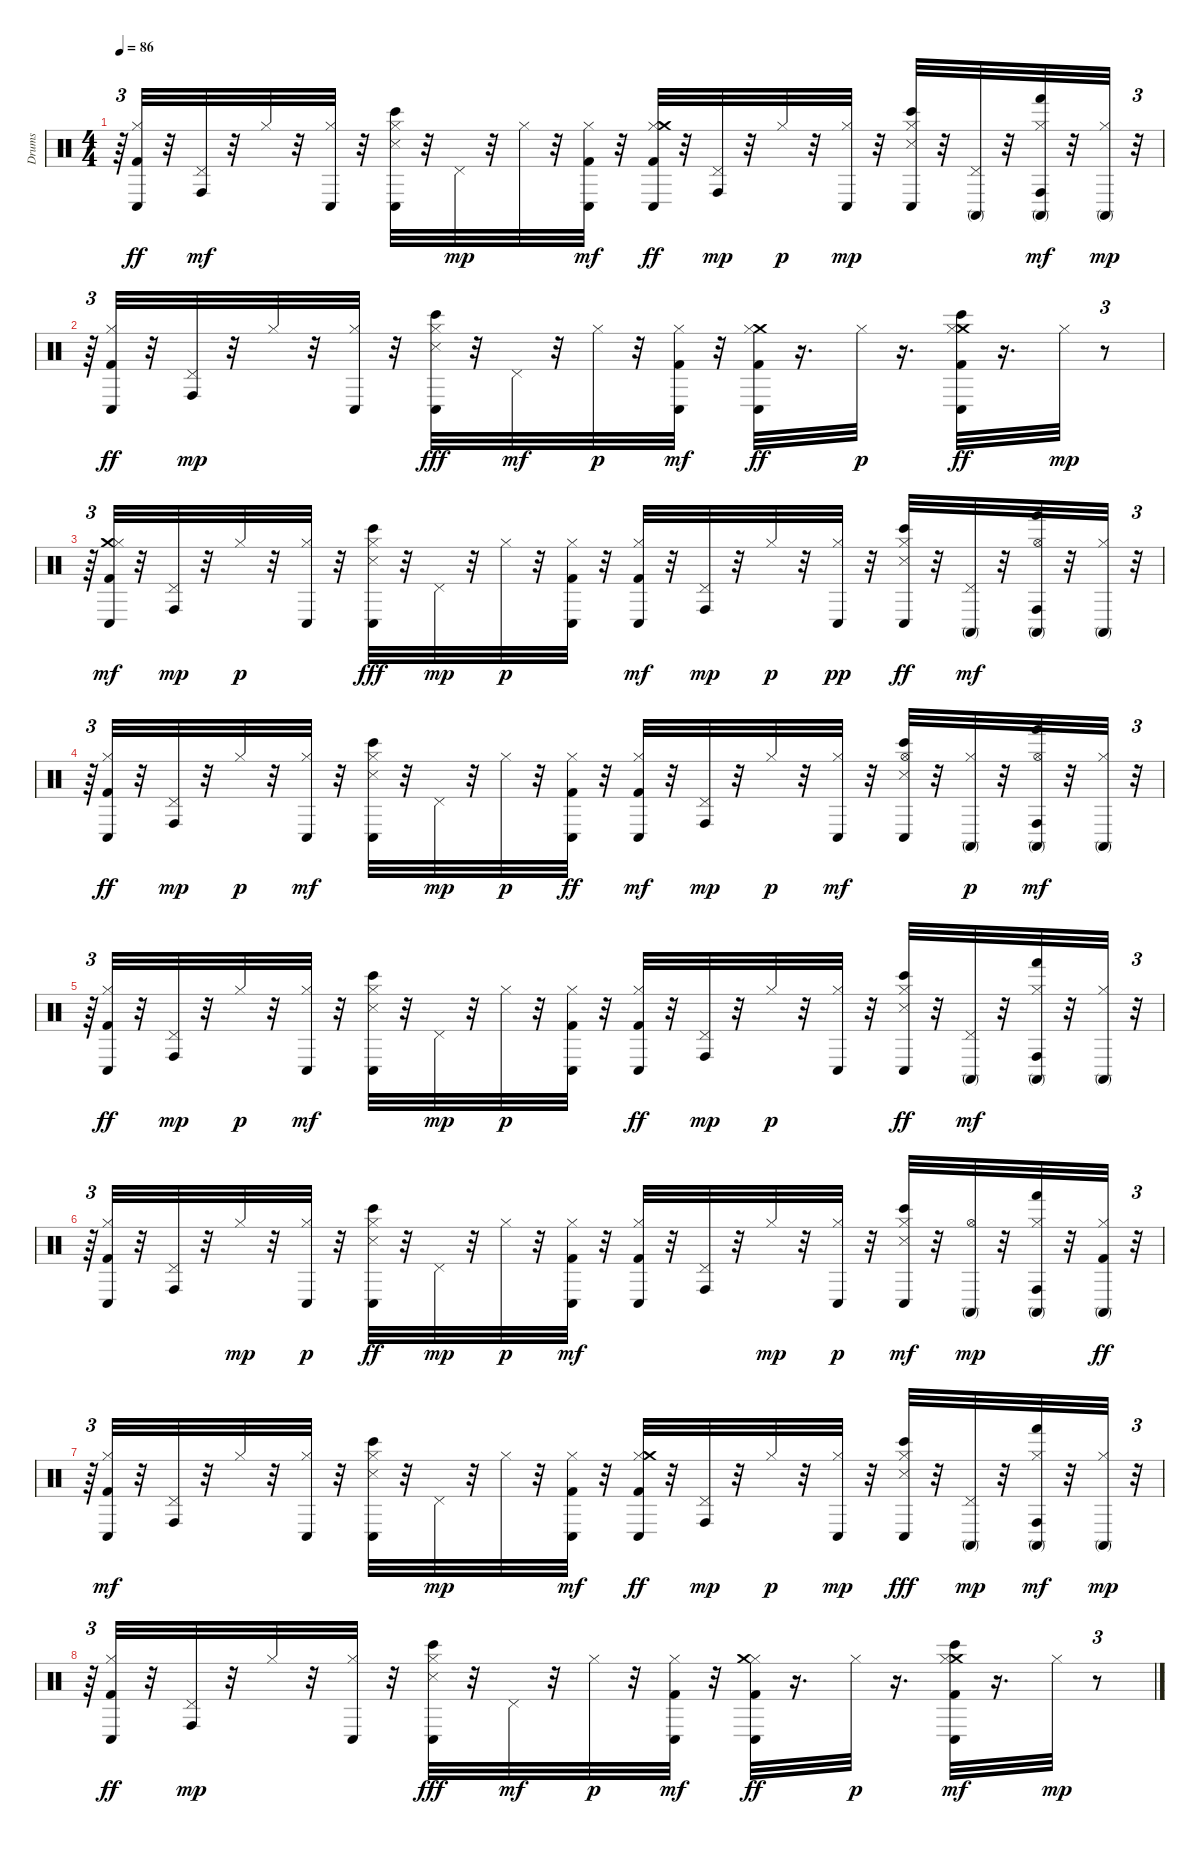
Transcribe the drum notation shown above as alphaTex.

\track ("Drums" "Drums") {instrument percussion}
\staff {score}
\articulation defaults
\ts (4 4)
\tempo 86
\clef neutral
\ks c
r.64{tu (3 2) dy ff} ("Hi-Hat (closed)" "Conga low (hit)" "Kick (hit) 2").32 r.32 ("Pedal Hi-Hat (hit)" "Conga high (hit)").32{dy mf} r.32 "Hi-Hat (closed)".32 r.32 ("Hi-Hat (closed)" "Conga low (hit)").32 r.32 ("Hi-Hat (closed)" "Bongo High (hit)" "Conga low (hit)" "Snare (side stick) 3").32 r.32 "Pedal Hi-Hat (hit)".32{dy mp} r.32 "Hi-Hat (closed)".32 r.32 ("Hi-Hat (closed)" "Kick (hit) 2" "Conga low (hit)").32{dy mf} r.32 ("Hi-Hat (closed)" "Conga low (hit)" "Crash medium (hit)" "Kick (hit) 2").32{dy ff} r.32 ("Pedal Hi-Hat (hit)" "Conga high (hit)").32{dy mp} r.32 "Hi-Hat (closed)".32{dy p} r.32 ("Conga low (hit)" "Hi-Hat (closed)").32{dy mp} r.32 ("Conga low (hit)" "Snare (side stick) 3" "Bongo High (hit)" "Hi-Hat (closed)").32 r.32 ("Conga high (mute)" "Pedal Hi-Hat (hit)").32 r.32 ("Conga high (hit)" "Hi-Hat (closed)" "Conga high (mute)" "Hand (hit)").32{dy mf} r.32 ("Conga high (mute)" "Hi-Hat (closed)").32{dy mp} r.32{tu (3 2)} |
r.64{tu (3 2)} ("Conga low (hit)" "Kick (hit) 2" "Hi-Hat (closed)").32{dy ff} r.32 ("Pedal Hi-Hat (hit)" "Conga high (hit)").32{dy mp} r.32 "Hi-Hat (closed)".32 r.32 ("Conga low (hit)" "Hi-Hat (closed)").32 r.32 ("Bongo High (hit)" "Conga low (hit)" "Snare (side stick) 3" "Hi-Hat (closed)").32{dy fff} r.32 "Pedal Hi-Hat (hit)".32{dy mf} r.32 "Hi-Hat (closed)".32{dy p} r.32 ("Hi-Hat (closed)" "Conga low (hit)" "Kick (hit) 2").32{dy mf} r.32 ("Conga low (hit)" "Crash medium (hit)" "Hi-Hat (closed)" "Kick (hit) 2").32{dy ff} r.16{d} "Hi-Hat (closed)".32{dy p} r.16{d} ("Bongo High (hit)" "Conga low (hit)" "Crash medium (hit)" "Hi-Hat (closed)" "Kick (hit) 2").32{dy ff} r.16{d} "Hi-Hat (closed)".32{dy mp} r.8{tu (3 2)} |
r.64{tu (3 2)} ("Kick (hit) 2" "Conga low (hit)" "Crash medium (hit)" "Hi-Hat (closed)").32{dy mf} r.32 ("Pedal Hi-Hat (hit)" "Conga high (hit)").32{dy mp} r.32 "Hi-Hat (closed)".32{dy p} r.32 ("Conga low (hit)" "Hi-Hat (closed)").32 r.32 ("Conga low (hit)" "Bongo High (hit)" "Snare (side stick) 3" "Hi-Hat (closed)").32{dy fff} r.32 "Pedal Hi-Hat (hit)".32{dy mp} r.32 "Hi-Hat (closed)".32{dy p} r.32 ("Conga low (hit)" "Hi-Hat (closed)" "Kick (hit) 2").32 r.32 ("Conga low (hit)" "Hi-Hat (closed)" "Kick (hit) 2").32{dy mf} r.32 ("Pedal Hi-Hat (hit)" "Conga high (hit)").32{dy mp} r.32 "Hi-Hat (closed)".32{dy p} r.32 ("Conga low (hit)" "Hi-Hat (closed)").32{dy pp} r.32 ("Bongo High (hit)" "Conga low (hit)" "Snare (side stick) 3" "Hi-Hat (closed)").32{dy ff} r.32 ("Conga high (mute)" "Pedal Hi-Hat (hit)").32{dy mf} r.32 ("Hi-Hat (open)" "Conga high (mute)" "Conga high (hit)" "Hand (hit)").32 r.32 ("Hi-Hat (closed)" "Conga high (mute)").32 r.32{tu (3 2)} |
r.64{tu (3 2)} ("Hi-Hat (closed)" "Kick (hit) 2" "Conga low (hit)").32{dy ff} r.32 ("Pedal Hi-Hat (hit)" "Conga high (hit)").32{dy mp} r.32 "Hi-Hat (closed)".32{dy p} r.32 ("Hi-Hat (closed)" "Conga low (hit)").32{dy mf} r.32 ("Snare (side stick) 3" "Hi-Hat (closed)" "Bongo High (hit)" "Conga low (hit)").32 r.32 "Pedal Hi-Hat (hit)".32{dy mp} r.32 "Hi-Hat (closed)".32{dy p} r.32 ("Hi-Hat (closed)" "Conga low (hit)" "Kick (hit) 2").32{dy ff} r.32 ("Conga low (hit)" "Kick (hit) 2" "Hi-Hat (closed)").32{dy mf} r.32 ("Conga high (hit)" "Pedal Hi-Hat (hit)").32{dy mp} r.32 "Hi-Hat (closed)".32{dy p} r.32 ("Hi-Hat (closed)" "Conga low (hit)").32{dy mf} r.32 ("Snare (side stick) 3" "Bongo High (hit)" "Conga low (hit)" "Hi-Hat (open)").32 r.32 ("Conga high (mute)" "Hi-Hat (closed)").32{dy p} r.32 ("Conga high (hit)" "Hi-Hat (open)" "Conga high (mute)" "Hand (hit)").32{dy mf} r.32 ("Hi-Hat (closed)" "Conga high (mute)").32 r.32{tu (3 2)} |
r.64{tu (3 2)} ("Kick (hit) 2" "Conga low (hit)" "Hi-Hat (closed)").32{dy ff} r.32 ("Pedal Hi-Hat (hit)" "Conga high (hit)").32{dy mp} r.32 "Hi-Hat (closed)".32{dy p} r.32 ("Hi-Hat (closed)" "Conga low (hit)").32{dy mf} r.32 ("Snare (side stick) 3" "Conga low (hit)" "Hi-Hat (closed)" "Bongo High (hit)").32 r.32 "Pedal Hi-Hat (hit)".32{dy mp} r.32 "Hi-Hat (closed)".32{dy p} r.32 ("Kick (hit) 2" "Conga low (hit)" "Hi-Hat (closed)").32 r.32 ("Hi-Hat (closed)" "Conga low (hit)" "Kick (hit) 2").32{dy ff} r.32 ("Pedal Hi-Hat (hit)" "Conga high (hit)").32{dy mp} r.32 "Hi-Hat (closed)".32{dy p} r.32 ("Conga low (hit)" "Hi-Hat (closed)").32 r.32 ("Conga low (hit)" "Bongo High (hit)" "Hi-Hat (closed)" "Snare (side stick) 3").32{dy ff} r.32 ("Conga high (mute)" "Pedal Hi-Hat (hit)").32{dy mf} r.32 ("Conga high (hit)" "Conga high (mute)" "Hi-Hat (closed)" "Hand (hit)").32 r.32 ("Hi-Hat (closed)" "Conga high (mute)").32 r.32{tu (3 2)} |
r.64{tu (3 2)} ("Kick (hit) 2" "Hi-Hat (closed)" "Conga low (hit)").32 r.32 ("Pedal Hi-Hat (hit)" "Conga high (hit)").32 r.32 "Hi-Hat (closed)".32{dy mp} r.32 ("Conga low (hit)" "Hi-Hat (closed)").32{dy p} r.32 ("Conga low (hit)" "Snare (side stick) 3" "Bongo High (hit)" "Hi-Hat (closed)").32{dy ff} r.32 "Pedal Hi-Hat (hit)".32{dy mp} r.32 "Hi-Hat (closed)".32{dy p} r.32 ("Kick (hit) 2" "Hi-Hat (closed)" "Conga low (hit)").32{dy mf} r.32 ("Conga low (hit)" "Hi-Hat (closed)" "Kick (hit) 2").32 r.32 ("Conga high (hit)" "Pedal Hi-Hat (hit)").32 r.32 "Hi-Hat (closed)".32{dy mp} r.32 ("Conga low (hit)" "Hi-Hat (closed)").32{dy p} r.32 ("Bongo High (hit)" "Snare (side stick) 3" "Conga low (hit)" "Hi-Hat (closed)").32{dy mf} r.32 ("Conga high (mute)" "Hi-Hat (open)").32{dy mp} r.32 ("Hi-Hat (closed)" "Conga high (mute)" "Conga high (hit)" "Hand (hit)").32 r.32 ("Hi-Hat (closed)" "Conga high (mute)" "Kick (hit) 2").32{dy ff} r.32{tu (3 2)} |
r.64{tu (3 2)} ("Hi-Hat (closed)" "Kick (hit) 2" "Conga low (hit)").32{dy mf} r.32 ("Pedal Hi-Hat (hit)" "Conga high (hit)").32 r.32 "Hi-Hat (closed)".32 r.32 ("Hi-Hat (closed)" "Conga low (hit)").32 r.32 ("Hi-Hat (closed)" "Bongo High (hit)" "Conga low (hit)" "Snare (side stick) 3").32 r.32 "Pedal Hi-Hat (hit)".32{dy mp} r.32 "Hi-Hat (closed)".32 r.32 ("Hi-Hat (closed)" "Kick (hit) 2" "Conga low (hit)").32{dy mf} r.32 ("Hi-Hat (closed)" "Conga low (hit)" "Kick (hit) 2" "Crash medium (hit)").32{dy ff} r.32 ("Pedal Hi-Hat (hit)" "Conga high (hit)").32{dy mp} r.32 "Hi-Hat (closed)".32{dy p} r.32 ("Conga low (hit)" "Hi-Hat (closed)").32{dy mp} r.32 ("Conga low (hit)" "Bongo High (hit)" "Snare (side stick) 3" "Hi-Hat (closed)").32{dy fff} r.32 ("Conga high (mute)" "Pedal Hi-Hat (hit)").32{dy mp} r.32 ("Hi-Hat (closed)" "Conga high (hit)" "Conga high (mute)" "Hand (hit)").32{dy mf} r.32 ("Conga high (mute)" "Hi-Hat (closed)").32{dy mp} r.32{tu (3 2)} |
r.64{tu (3 2)} ("Conga low (hit)" "Kick (hit) 2" "Hi-Hat (closed)").32{dy ff} r.32 ("Pedal Hi-Hat (hit)" "Conga high (hit)").32{dy mp} r.32 "Hi-Hat (closed)".32 r.32 ("Conga low (hit)" "Hi-Hat (closed)").32 r.32 ("Conga low (hit)" "Bongo High (hit)" "Snare (side stick) 3" "Hi-Hat (closed)").32{dy fff} r.32 "Pedal Hi-Hat (hit)".32{dy mf} r.32 "Hi-Hat (closed)".32{dy p} r.32 ("Conga low (hit)" "Kick (hit) 2" "Hi-Hat (closed)").32{dy mf} r.32 ("Conga low (hit)" "Hi-Hat (closed)" "Crash medium (hit)" "Kick (hit) 2").32{dy ff} r.16{d} "Hi-Hat (closed)".32{dy p} r.16{d} ("Conga low (hit)" "Bongo High (hit)" "Crash medium (hit)" "Kick (hit) 2" "Hi-Hat (closed)").32{dy mf} r.16{d} "Hi-Hat (closed)".32{dy mp} r.8{tu (3 2)}
